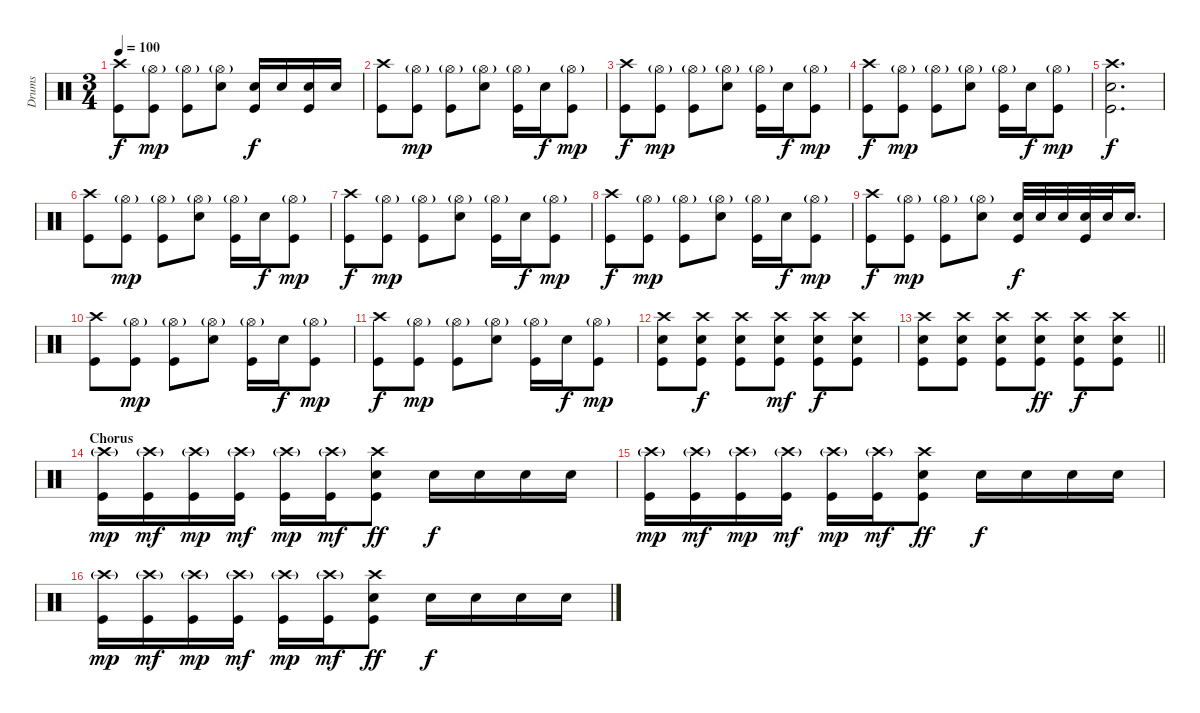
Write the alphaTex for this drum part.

\track ("Drums" "Drums") {instrument percussion}
\staff {score}
\articulation defaults
\ts (3 4)
\tempo 100
\clef neutral
\ks c
("Crash high (hit)" "Kick (hit)").8{dy f} ("Hi-Hat (open)"{g} "Kick (hit)").8{dy mp} ("Hi-Hat (open)"{g} "Kick (hit)").8 ("Hi-Hat (open)"{g} "Electric Snare (hit)").8 ("Electric Snare (hit)" "Kick (hit)").16{dy f} "Electric Snare (hit)".16 ("Electric Snare (hit)" "Kick (hit)").16 "Electric Snare (hit)".16 |
("Crash high (hit)" "Kick (hit)").8 ("Hi-Hat (open)"{g} "Kick (hit)").8{dy mp} ("Hi-Hat (open)"{g} "Kick (hit)").8 ("Hi-Hat (open)"{g} "Electric Snare (hit)").8 ("Hi-Hat (open)"{g} "Kick (hit)").16 "Electric Snare (hit)".16{dy f} ("Hi-Hat (open)"{g} "Kick (hit)").8{dy mp} |
("Crash high (hit)" "Kick (hit)").8{dy f} ("Hi-Hat (open)"{g} "Kick (hit)").8{dy mp} ("Hi-Hat (open)"{g} "Kick (hit)").8 ("Hi-Hat (open)"{g} "Electric Snare (hit)").8 ("Hi-Hat (open)"{g} "Kick (hit)").16 "Electric Snare (hit)".16{dy f} ("Hi-Hat (open)"{g} "Kick (hit)").8{dy mp} |
("Crash high (hit)" "Kick (hit)").8{dy f} ("Hi-Hat (open)"{g} "Kick (hit)").8{dy mp} ("Hi-Hat (open)"{g} "Kick (hit)").8 ("Hi-Hat (open)"{g} "Electric Snare (hit)").8 ("Hi-Hat (open)"{g} "Kick (hit)").16 "Electric Snare (hit)".16{dy f} ("Hi-Hat (open)"{g} "Kick (hit)").8{dy mp} |
("Crash high (hit)" "Electric Snare (hit)" "Kick (hit)").2{d dy f} |
("Crash high (hit)" "Kick (hit)").8 ("Hi-Hat (open)"{g} "Kick (hit)").8{dy mp} ("Hi-Hat (open)"{g} "Kick (hit)").8 ("Hi-Hat (open)"{g} "Electric Snare (hit)").8 ("Hi-Hat (open)"{g} "Kick (hit)").16 "Electric Snare (hit)".16{dy f} ("Hi-Hat (open)"{g} "Kick (hit)").8{dy mp} |
("Crash high (hit)" "Kick (hit)").8{dy f} ("Hi-Hat (open)"{g} "Kick (hit)").8{dy mp} ("Hi-Hat (open)"{g} "Kick (hit)").8 ("Hi-Hat (open)"{g} "Electric Snare (hit)").8 ("Hi-Hat (open)"{g} "Kick (hit)").16 "Electric Snare (hit)".16{dy f} ("Hi-Hat (open)"{g} "Kick (hit)").8{dy mp} |
("Crash high (hit)" "Kick (hit)").8{dy f} ("Hi-Hat (open)"{g} "Kick (hit)").8{dy mp} ("Hi-Hat (open)"{g} "Kick (hit)").8 ("Hi-Hat (open)"{g} "Electric Snare (hit)").8 ("Hi-Hat (open)"{g} "Kick (hit)").16 "Electric Snare (hit)".16{dy f} ("Hi-Hat (open)"{g} "Kick (hit)").8{dy mp} |
("Crash high (hit)" "Kick (hit)").8{dy f} ("Hi-Hat (open)"{g} "Kick (hit)").8{dy mp} ("Hi-Hat (open)"{g} "Kick (hit)").8 ("Hi-Hat (open)"{g} "Electric Snare (hit)").8 ("Electric Snare (hit)" "Kick (hit)").32{dy f} "Electric Snare (hit)".32 "Electric Snare (hit)".32 ("Electric Snare (hit)" "Kick (hit)").32 "Electric Snare (hit)".32 "Electric Snare (hit)".16{d} |
("Crash high (hit)" "Kick (hit)").8 ("Hi-Hat (open)"{g} "Kick (hit)").8{dy mp} ("Hi-Hat (open)"{g} "Kick (hit)").8 ("Hi-Hat (open)"{g} "Electric Snare (hit)").8 ("Hi-Hat (open)"{g} "Kick (hit)").16 "Electric Snare (hit)".16{dy f} ("Hi-Hat (open)"{g} "Kick (hit)").8{dy mp} |
("Crash high (hit)" "Kick (hit)").8{dy f} ("Hi-Hat (open)"{g} "Kick (hit)").8{dy mp} ("Hi-Hat (open)"{g} "Kick (hit)").8 ("Hi-Hat (open)"{g} "Electric Snare (hit)").8 ("Hi-Hat (open)"{g} "Kick (hit)").16 "Electric Snare (hit)".16{dy f} ("Hi-Hat (open)"{g} "Kick (hit)").8{dy mp} |
("Crash high (hit)" "Electric Snare (hit)" "Kick (hit)").8 ("Crash high (hit)" "Electric Snare (hit)" "Kick (hit)").8{dy f} ("Crash high (hit)" "Electric Snare (hit)" "Kick (hit)").8 ("Crash high (hit)" "Electric Snare (hit)" "Kick (hit)").8{dy mf} ("Crash high (hit)" "Electric Snare (hit)" "Kick (hit)").8{dy f} ("Crash high (hit)" "Electric Snare (hit)" "Kick (hit)").8 |
\barLineRight lightlight
("Crash high (hit)" "Electric Snare (hit)" "Kick (hit)").8 ("Crash high (hit)" "Electric Snare (hit)" "Kick (hit)").8 ("Crash high (hit)" "Electric Snare (hit)" "Kick (hit)").8 ("Crash high (hit)" "Electric Snare (hit)" "Kick (hit)").8{dy ff} ("Crash high (hit)" "Electric Snare (hit)" "Kick (hit)").8{dy f} ("Crash high (hit)" "Electric Snare (hit)" "Kick (hit)").8 |
\section ("" "Chorus")
("Crash high (hit)"{g} "Kick (hit)").16{dy mp} ("Crash high (hit)"{g} "Kick (hit)").16{dy mf} ("Crash high (hit)"{g} "Kick (hit)").16{dy mp} ("Crash high (hit)"{g} "Kick (hit)").16{dy mf} ("Crash high (hit)"{g} "Kick (hit)").16{dy mp} ("Crash high (hit)"{g} "Kick (hit)").16{dy mf} ("Crash high (hit)" "Electric Snare (hit)" "Kick (hit)").8{dy ff} "Electric Snare (hit)".16{dy f} "Electric Snare (hit)".16 "Electric Snare (hit)".16 "Electric Snare (hit)".16 |
("Crash high (hit)"{g} "Kick (hit)").16{dy mp} ("Crash high (hit)"{g} "Kick (hit)").16{dy mf} ("Crash high (hit)"{g} "Kick (hit)").16{dy mp} ("Crash high (hit)"{g} "Kick (hit)").16{dy mf} ("Crash high (hit)"{g} "Kick (hit)").16{dy mp} ("Crash high (hit)"{g} "Kick (hit)").16{dy mf} ("Crash high (hit)" "Electric Snare (hit)" "Kick (hit)").8{dy ff} "Electric Snare (hit)".16{dy f} "Electric Snare (hit)".16 "Electric Snare (hit)".16 "Electric Snare (hit)".16 |
("Crash high (hit)"{g} "Kick (hit)").16{dy mp} ("Crash high (hit)"{g} "Kick (hit)").16{dy mf} ("Crash high (hit)"{g} "Kick (hit)").16{dy mp} ("Crash high (hit)"{g} "Kick (hit)").16{dy mf} ("Crash high (hit)"{g} "Kick (hit)").16{dy mp} ("Crash high (hit)"{g} "Kick (hit)").16{dy mf} ("Crash high (hit)" "Electric Snare (hit)" "Kick (hit)").8{dy ff} "Electric Snare (hit)".16{dy f} "Electric Snare (hit)".16 "Electric Snare (hit)".16 "Electric Snare (hit)".16
